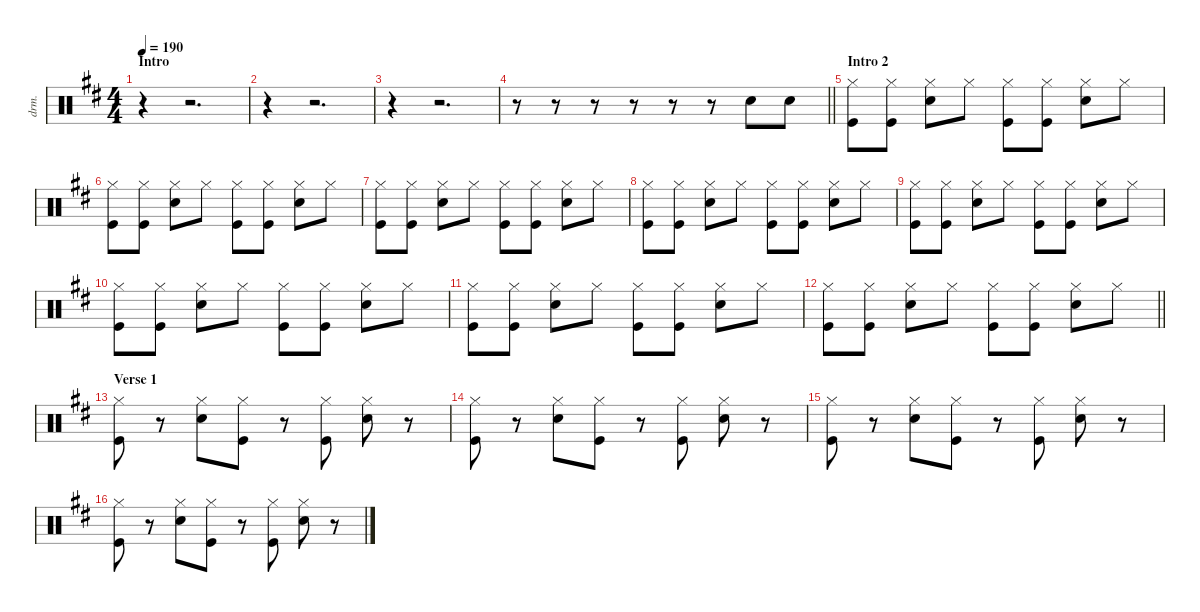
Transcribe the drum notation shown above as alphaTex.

\defaultSystemsLayout 4
\hideDynamics
\bracketExtendMode nobrackets
\otherSystemsTrackNameOrientation horizontal
\track ("Damon Wilson" "drm.") {instrument percussion}
\staff {score}
\articulation defaults
\ts (4 4)
\beaming (8 2 2 2 2)
\section ("" "Intro")
\tempo 190
\clef neutral
\ks d
r.4{dy f beam Down} r.2{d beam Down} |
r.4{beam Down} r.2{d beam Down} |
r.4{beam Down} r.2{d beam Down} |
\barLineRight lightlight
r.8{beam Down} r.8{beam Down} r.8{beam Down} r.8{beam Down} r.8{beam Down} r.8{beam Down} "Snare (hit) 2"{acc forcenatural}.8{beam Down} "Snare (hit) 2"{acc forcenatural}.8{beam Down} |
\section ("" "Intro 2")
("Hi-Hat (closed)"{acc forcenatural} "Kick (hit)"{acc forcenatural}).8{beam Down} ("Hi-Hat (closed)"{acc forcenatural} "Kick (hit)"{acc forcenatural}).8{beam Down} ("Hi-Hat (closed)"{acc forcenatural} "Snare (hit) 2"{acc forcenatural}).8{beam Down} "Hi-Hat (closed)"{acc forcenatural}.8{beam Down} ("Hi-Hat (closed)"{acc forcenatural} "Kick (hit)"{acc forcenatural}).8{beam Down} ("Hi-Hat (closed)"{acc forcenatural} "Kick (hit)"{acc forcenatural}).8{beam Down} ("Hi-Hat (closed)"{acc forcenatural} "Snare (hit) 2"{acc forcenatural}).8{beam Down} "Hi-Hat (closed)"{acc forcenatural}.8{beam Down} |
("Hi-Hat (closed)"{acc forcenatural} "Kick (hit)"{acc forcenatural}).8{beam Down} ("Hi-Hat (closed)"{acc forcenatural} "Kick (hit)"{acc forcenatural}).8{beam Down} ("Hi-Hat (closed)"{acc forcenatural} "Snare (hit) 2"{acc forcenatural}).8{beam Down} "Hi-Hat (closed)"{acc forcenatural}.8{beam Down} ("Hi-Hat (closed)"{acc forcenatural} "Kick (hit)"{acc forcenatural}).8{beam Down} ("Hi-Hat (closed)"{acc forcenatural} "Kick (hit)"{acc forcenatural}).8{beam Down} ("Hi-Hat (closed)"{acc forcenatural} "Snare (hit) 2"{acc forcenatural}).8{beam Down} "Hi-Hat (closed)"{acc forcenatural}.8{beam Down} |
("Hi-Hat (closed)"{acc forcenatural} "Kick (hit)"{acc forcenatural}).8{beam Down} ("Hi-Hat (closed)"{acc forcenatural} "Kick (hit)"{acc forcenatural}).8{beam Down} ("Hi-Hat (closed)"{acc forcenatural} "Snare (hit) 2"{acc forcenatural}).8{beam Down} "Hi-Hat (closed)"{acc forcenatural}.8{beam Down} ("Hi-Hat (closed)"{acc forcenatural} "Kick (hit)"{acc forcenatural}).8{beam Down} ("Hi-Hat (closed)"{acc forcenatural} "Kick (hit)"{acc forcenatural}).8{beam Down} ("Hi-Hat (closed)"{acc forcenatural} "Snare (hit) 2"{acc forcenatural}).8{beam Down} "Hi-Hat (closed)"{acc forcenatural}.8{beam Down} |
("Hi-Hat (closed)"{acc forcenatural} "Kick (hit)"{acc forcenatural}).8{beam Down} ("Hi-Hat (closed)"{acc forcenatural} "Kick (hit)"{acc forcenatural}).8{beam Down} ("Hi-Hat (closed)"{acc forcenatural} "Snare (hit) 2"{acc forcenatural}).8{beam Down} "Hi-Hat (closed)"{acc forcenatural}.8{beam Down} ("Hi-Hat (closed)"{acc forcenatural} "Kick (hit)"{acc forcenatural}).8{beam Down} ("Hi-Hat (closed)"{acc forcenatural} "Kick (hit)"{acc forcenatural}).8{beam Down} ("Hi-Hat (closed)"{acc forcenatural} "Snare (hit) 2"{acc forcenatural}).8{beam Down} "Hi-Hat (closed)"{acc forcenatural}.8{beam Down} |
("Hi-Hat (closed)"{acc forcenatural} "Kick (hit)"{acc forcenatural}).8{beam Down} ("Hi-Hat (closed)"{acc forcenatural} "Kick (hit)"{acc forcenatural}).8{beam Down} ("Hi-Hat (closed)"{acc forcenatural} "Snare (hit) 2"{acc forcenatural}).8{beam Down} "Hi-Hat (closed)"{acc forcenatural}.8{beam Down} ("Hi-Hat (closed)"{acc forcenatural} "Kick (hit)"{acc forcenatural}).8{beam Down} ("Hi-Hat (closed)"{acc forcenatural} "Kick (hit)"{acc forcenatural}).8{beam Down} ("Hi-Hat (closed)"{acc forcenatural} "Snare (hit) 2"{acc forcenatural}).8{beam Down} "Hi-Hat (closed)"{acc forcenatural}.8{beam Down} |
("Hi-Hat (closed)"{acc forcenatural} "Kick (hit)"{acc forcenatural}).8{beam Down} ("Hi-Hat (closed)"{acc forcenatural} "Kick (hit)"{acc forcenatural}).8{beam Down} ("Hi-Hat (closed)"{acc forcenatural} "Snare (hit) 2"{acc forcenatural}).8{beam Down} "Hi-Hat (closed)"{acc forcenatural}.8{beam Down} ("Hi-Hat (closed)"{acc forcenatural} "Kick (hit)"{acc forcenatural}).8{beam Down} ("Hi-Hat (closed)"{acc forcenatural} "Kick (hit)"{acc forcenatural}).8{beam Down} ("Hi-Hat (closed)"{acc forcenatural} "Snare (hit) 2"{acc forcenatural}).8{beam Down} "Hi-Hat (closed)"{acc forcenatural}.8{beam Down} |
("Hi-Hat (closed)"{acc forcenatural} "Kick (hit)"{acc forcenatural}).8{beam Down} ("Hi-Hat (closed)"{acc forcenatural} "Kick (hit)"{acc forcenatural}).8{beam Down} ("Hi-Hat (closed)"{acc forcenatural} "Snare (hit) 2"{acc forcenatural}).8{beam Down} "Hi-Hat (closed)"{acc forcenatural}.8{beam Down} ("Hi-Hat (closed)"{acc forcenatural} "Kick (hit)"{acc forcenatural}).8{beam Down} ("Hi-Hat (closed)"{acc forcenatural} "Kick (hit)"{acc forcenatural}).8{beam Down} ("Hi-Hat (closed)"{acc forcenatural} "Snare (hit) 2"{acc forcenatural}).8{beam Down} "Hi-Hat (closed)"{acc forcenatural}.8{beam Down} |
\barLineRight lightlight
("Hi-Hat (closed)"{acc forcenatural} "Kick (hit)"{acc forcenatural}).8{beam Down} ("Hi-Hat (closed)"{acc forcenatural} "Kick (hit)"{acc forcenatural}).8{beam Down} ("Hi-Hat (closed)"{acc forcenatural} "Snare (hit) 2"{acc forcenatural}).8{beam Down} "Hi-Hat (closed)"{acc forcenatural}.8{beam Down} ("Hi-Hat (closed)"{acc forcenatural} "Kick (hit)"{acc forcenatural}).8{beam Down} ("Hi-Hat (closed)"{acc forcenatural} "Kick (hit)"{acc forcenatural}).8{beam Down} ("Hi-Hat (closed)"{acc forcenatural} "Snare (hit) 2"{acc forcenatural}).8{beam Down} "Hi-Hat (closed)"{acc forcenatural}.8{beam Down} |
\section ("" "Verse 1")
("Hi-Hat (closed)"{acc forcenatural} "Kick (hit)"{acc forcenatural}).8{beam Down} r.8{beam Down} ("Hi-Hat (closed)"{acc forcenatural} "Snare (hit) 2"{acc forcenatural}).8{beam Down} ("Hi-Hat (closed)"{acc forcenatural} "Kick (hit)"{acc forcenatural}).8{beam Down} r.8{beam Down} ("Hi-Hat (closed)"{acc forcenatural} "Kick (hit)"{acc forcenatural}).8{beam Down} ("Hi-Hat (closed)"{acc forcenatural} "Snare (hit) 2"{acc forcenatural}).8{beam Down} r.8{beam Down} |
("Hi-Hat (closed)"{acc forcenatural} "Kick (hit)"{acc forcenatural}).8{beam Down} r.8{beam Down} ("Hi-Hat (closed)"{acc forcenatural} "Snare (hit) 2"{acc forcenatural}).8{beam Down} ("Hi-Hat (closed)"{acc forcenatural} "Kick (hit)"{acc forcenatural}).8{beam Down} r.8{beam Down} ("Hi-Hat (closed)"{acc forcenatural} "Kick (hit)"{acc forcenatural}).8{beam Down} ("Hi-Hat (closed)"{acc forcenatural} "Snare (hit) 2"{acc forcenatural}).8{beam Down} r.8{beam Down} |
("Hi-Hat (closed)"{acc forcenatural} "Kick (hit)"{acc forcenatural}).8{beam Down} r.8{beam Down} ("Hi-Hat (closed)"{acc forcenatural} "Snare (hit) 2"{acc forcenatural}).8{beam Down} ("Hi-Hat (closed)"{acc forcenatural} "Kick (hit)"{acc forcenatural}).8{beam Down} r.8{beam Down} ("Hi-Hat (closed)"{acc forcenatural} "Kick (hit)"{acc forcenatural}).8{beam Down} ("Hi-Hat (closed)"{acc forcenatural} "Snare (hit) 2"{acc forcenatural}).8{beam Down} r.8{beam Down} |
("Hi-Hat (closed)"{acc forcenatural} "Kick (hit)"{acc forcenatural}).8{beam Down} r.8{beam Down} ("Hi-Hat (closed)"{acc forcenatural} "Snare (hit) 2"{acc forcenatural}).8{beam Down} ("Hi-Hat (closed)"{acc forcenatural} "Kick (hit)"{acc forcenatural}).8{beam Down} r.8{beam Down} ("Hi-Hat (closed)"{acc forcenatural} "Kick (hit)"{acc forcenatural}).8{beam Down} ("Hi-Hat (closed)"{acc forcenatural} "Snare (hit) 2"{acc forcenatural}).8{beam Down} r.8{beam Down}
